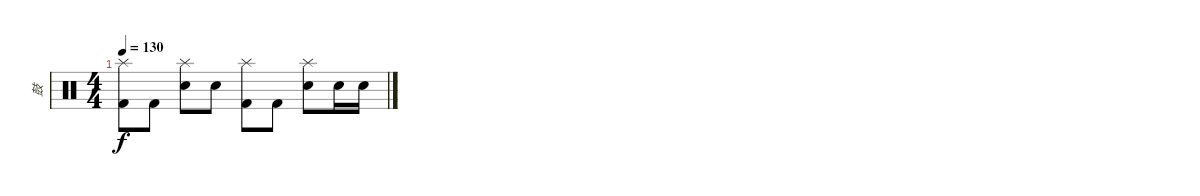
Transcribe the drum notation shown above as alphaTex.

\track ("鼓" "鼓") {instrument percussion}
\staff {score}
\articulation defaults
\ts (4 4)
\tempo 130
\clef neutral
\ks c
("Splash (hit)" "Kick (hit) 2").8{dy f} "Kick (hit) 2".8 ("Splash (hit)" "Electric Snare (hit)").8 "Electric Snare (hit)".8 ("Splash (hit)" "Kick (hit) 2").8 "Kick (hit) 2".8 ("Splash (hit)" "Electric Snare (hit)").8 "Electric Snare (hit)".16 "Electric Snare (hit)".16
